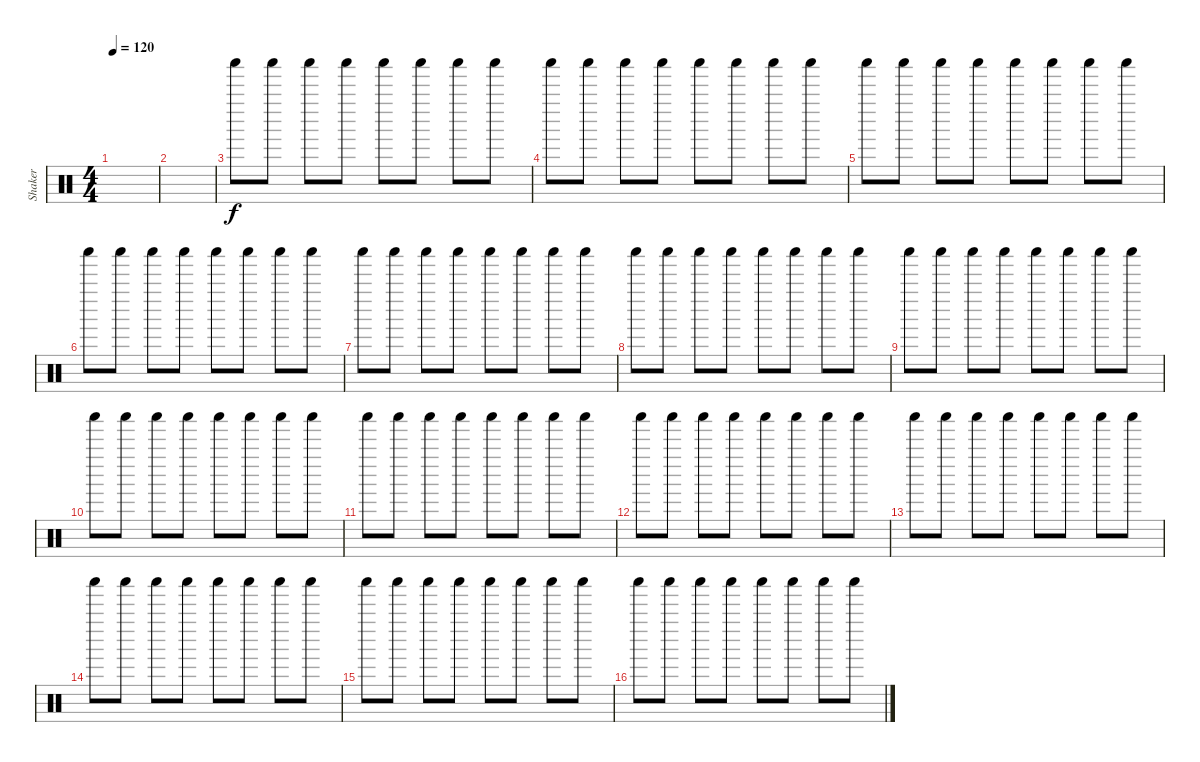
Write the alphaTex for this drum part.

\track ("Shaker" "Shaker") {instrument percussion}
\staff {score}
\articulation defaults
\ts (4 4)
\tempo 120
\clef neutral
\ks c
|
|
"Shaker (hit)".8 "Shaker (hit)".8 "Shaker (hit)".8 "Shaker (hit)".8 "Shaker (hit)".8 "Shaker (hit)".8 "Shaker (hit)".8 "Shaker (hit)".8 |
"Shaker (hit)".8 "Shaker (hit)".8 "Shaker (hit)".8 "Shaker (hit)".8 "Shaker (hit)".8 "Shaker (hit)".8 "Shaker (hit)".8 "Shaker (hit)".8 |
"Shaker (hit)".8 "Shaker (hit)".8 "Shaker (hit)".8 "Shaker (hit)".8 "Shaker (hit)".8 "Shaker (hit)".8 "Shaker (hit)".8 "Shaker (hit)".8 |
"Shaker (hit)".8 "Shaker (hit)".8 "Shaker (hit)".8 "Shaker (hit)".8 "Shaker (hit)".8 "Shaker (hit)".8 "Shaker (hit)".8 "Shaker (hit)".8 |
"Shaker (hit)".8 "Shaker (hit)".8 "Shaker (hit)".8 "Shaker (hit)".8 "Shaker (hit)".8 "Shaker (hit)".8 "Shaker (hit)".8 "Shaker (hit)".8 |
"Shaker (hit)".8 "Shaker (hit)".8 "Shaker (hit)".8 "Shaker (hit)".8 "Shaker (hit)".8 "Shaker (hit)".8 "Shaker (hit)".8 "Shaker (hit)".8 |
"Shaker (hit)".8 "Shaker (hit)".8 "Shaker (hit)".8 "Shaker (hit)".8 "Shaker (hit)".8 "Shaker (hit)".8 "Shaker (hit)".8 "Shaker (hit)".8 |
"Shaker (hit)".8 "Shaker (hit)".8 "Shaker (hit)".8 "Shaker (hit)".8 "Shaker (hit)".8 "Shaker (hit)".8 "Shaker (hit)".8 "Shaker (hit)".8 |
"Shaker (hit)".8 "Shaker (hit)".8 "Shaker (hit)".8 "Shaker (hit)".8 "Shaker (hit)".8 "Shaker (hit)".8 "Shaker (hit)".8 "Shaker (hit)".8 |
"Shaker (hit)".8 "Shaker (hit)".8 "Shaker (hit)".8 "Shaker (hit)".8 "Shaker (hit)".8 "Shaker (hit)".8 "Shaker (hit)".8 "Shaker (hit)".8 |
"Shaker (hit)".8 "Shaker (hit)".8 "Shaker (hit)".8 "Shaker (hit)".8 "Shaker (hit)".8 "Shaker (hit)".8 "Shaker (hit)".8 "Shaker (hit)".8 |
"Shaker (hit)".8 "Shaker (hit)".8 "Shaker (hit)".8 "Shaker (hit)".8 "Shaker (hit)".8 "Shaker (hit)".8 "Shaker (hit)".8 "Shaker (hit)".8 |
"Shaker (hit)".8 "Shaker (hit)".8 "Shaker (hit)".8 "Shaker (hit)".8 "Shaker (hit)".8 "Shaker (hit)".8 "Shaker (hit)".8 "Shaker (hit)".8 |
"Shaker (hit)".8 "Shaker (hit)".8 "Shaker (hit)".8 "Shaker (hit)".8 "Shaker (hit)".8 "Shaker (hit)".8 "Shaker (hit)".8 "Shaker (hit)".8
